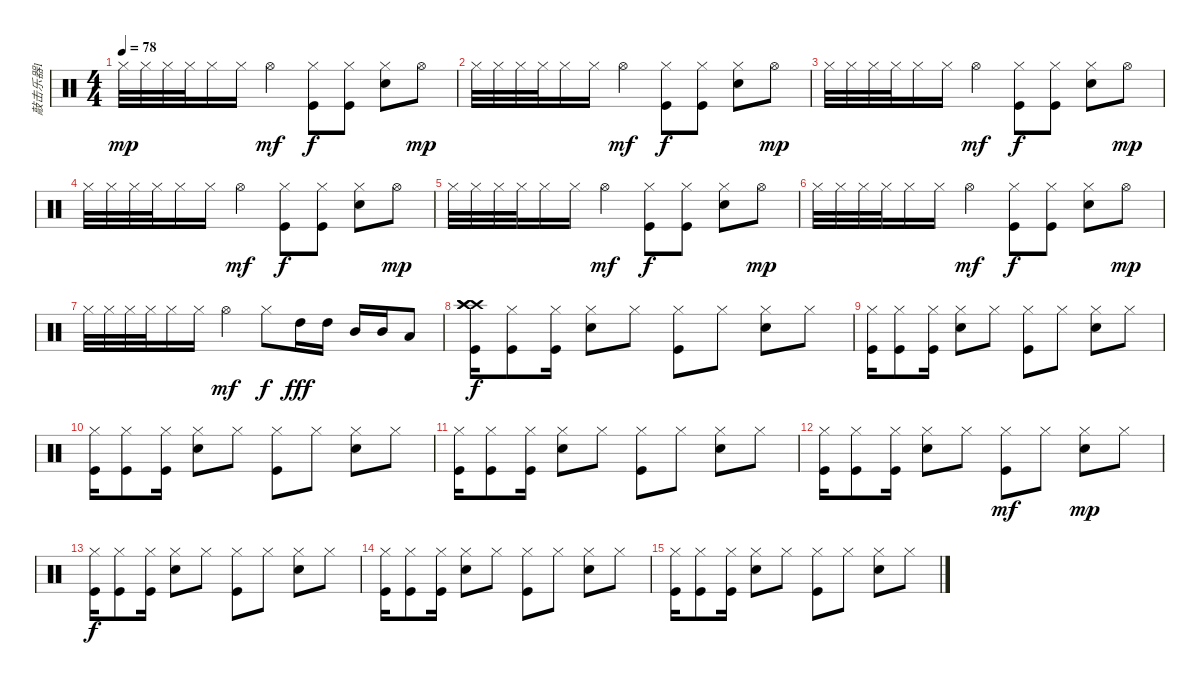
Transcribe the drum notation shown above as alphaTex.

\track ("敲击乐器1" "敲击乐器1") {instrument percussion}
\staff {score}
\articulation defaults
\ts (4 4)
\tempo 78
\clef neutral
\ks c "Hi-Hat (closed)".32{dy mp} "Hi-Hat (closed)".32 "Hi-Hat (closed)".32 "Hi-Hat (closed)".32 "Hi-Hat (closed)".16 "Hi-Hat (closed)".16 "Hi-Hat (open)".4{dy mf}
("Hi-Hat (closed)" "Kick (hit)").8{dy f} ("Hi-Hat (closed)" "Kick (hit)").8 ("Hi-Hat (closed)" "Snare (hit) 2").8 "Hi-Hat (open)".8{dy mp} |
"Hi-Hat (closed)".32 "Hi-Hat (closed)".32 "Hi-Hat (closed)".32 "Hi-Hat (closed)".32 "Hi-Hat (closed)".16 "Hi-Hat (closed)".16 "Hi-Hat (open)".4{dy mf} ("Hi-Hat (closed)" "Kick (hit)").8{dy f} ("Hi-Hat (closed)" "Kick (hit)").8 ("Hi-Hat (closed)" "Snare (hit) 2").8 "Hi-Hat (open)".8{dy mp} |
"Hi-Hat (closed)".32 "Hi-Hat (closed)".32 "Hi-Hat (closed)".32 "Hi-Hat (closed)".32 "Hi-Hat (closed)".16 "Hi-Hat (closed)".16 "Hi-Hat (open)".4{dy mf} ("Hi-Hat (closed)" "Kick (hit)").8{dy f} ("Hi-Hat (closed)" "Kick (hit)").8 ("Hi-Hat (closed)" "Snare (hit) 2").8 "Hi-Hat (open)".8{dy mp} |
"Hi-Hat (closed)".32 "Hi-Hat (closed)".32 "Hi-Hat (closed)".32 "Hi-Hat (closed)".32 "Hi-Hat (closed)".16 "Hi-Hat (closed)".16 "Hi-Hat (open)".4{dy mf} ("Hi-Hat (closed)" "Kick (hit)").8{dy f} ("Hi-Hat (closed)" "Kick (hit)").8 ("Hi-Hat (closed)" "Snare (hit) 2").8 "Hi-Hat (open)".8{dy mp} |
"Hi-Hat (closed)".32 "Hi-Hat (closed)".32 "Hi-Hat (closed)".32 "Hi-Hat (closed)".32 "Hi-Hat (closed)".16 "Hi-Hat (closed)".16 "Hi-Hat (open)".4{dy mf} ("Hi-Hat (closed)" "Kick (hit)").8{dy f} ("Hi-Hat (closed)" "Kick (hit)").8 ("Hi-Hat (closed)" "Snare (hit) 2").8 "Hi-Hat (open)".8{dy mp} |
"Hi-Hat (closed)".32 "Hi-Hat (closed)".32 "Hi-Hat (closed)".32 "Hi-Hat (closed)".32 "Hi-Hat (closed)".16 "Hi-Hat (closed)".16 "Hi-Hat (open)".4{dy mf} ("Hi-Hat (closed)" "Kick (hit)").8{dy f} ("Hi-Hat (closed)" "Kick (hit)").8 ("Hi-Hat (closed)" "Snare (hit) 2").8 "Hi-Hat (open)".8{dy mp} |
"Hi-Hat (closed)".32 "Hi-Hat (closed)".32 "Hi-Hat (closed)".32 "Hi-Hat (closed)".32 "Hi-Hat (closed)".16 "Hi-Hat (closed)".16 "Hi-Hat (open)".4{dy mf} "Hi-Hat (closed)".8{dy f} "High Tom (hit)".16{dy fff} "High Tom (hit)".16 "Mid Tom (hit)".16 "Mid Tom (hit)".16 "Low Tom (hit)".8 |
("Crash high (hit)" "Kick (hit)" "Crash high (hit)" "Crash high (hit)").16{dy f} ("Hi-Hat (closed)" "Kick (hit)").8 ("Hi-Hat (closed)" "Kick (hit)").16 ("Hi-Hat (closed)" "Snare (hit) 2").8 "Hi-Hat (closed)".8 ("Hi-Hat (closed)" "Kick (hit)").8 "Hi-Hat (closed)".8 ("Hi-Hat (closed)" "Snare (hit) 2").8 "Hi-Hat (closed)".8 |
("Hi-Hat (closed)" "Kick (hit)").16 ("Hi-Hat (closed)" "Kick (hit)").8 ("Hi-Hat (closed)" "Kick (hit)").16 ("Hi-Hat (closed)" "Snare (hit) 2").8 "Hi-Hat (closed)".8 ("Hi-Hat (closed)" "Kick (hit)").8 "Hi-Hat (closed)".8 ("Hi-Hat (closed)" "Snare (hit) 2").8 "Hi-Hat (closed)".8 |
("Hi-Hat (closed)" "Kick (hit)").16 ("Hi-Hat (closed)" "Kick (hit)").8 ("Hi-Hat (closed)" "Kick (hit)").16 ("Hi-Hat (closed)" "Snare (hit) 2").8 "Hi-Hat (closed)".8 ("Hi-Hat (closed)" "Kick (hit)").8 "Hi-Hat (closed)".8 ("Hi-Hat (closed)" "Snare (hit) 2").8 "Hi-Hat (closed)".8 |
("Hi-Hat (closed)" "Kick (hit)").16 ("Hi-Hat (closed)" "Kick (hit)").8 ("Hi-Hat (closed)" "Kick (hit)").16 ("Hi-Hat (closed)" "Snare (hit) 2").8 "Hi-Hat (closed)".8 ("Hi-Hat (closed)" "Kick (hit)").8 "Hi-Hat (closed)".8 ("Hi-Hat (closed)" "Snare (hit) 2").8 "Hi-Hat (closed)".8 |
("Hi-Hat (closed)" "Kick (hit)").16{volume 10} ("Hi-Hat (closed)" "Kick (hit)").8 ("Hi-Hat (closed)" "Kick (hit)").16 ("Hi-Hat (closed)" "Snare (hit) 2").8 "Hi-Hat (closed)".8 ("Hi-Hat (closed)" "Kick (hit)").8{dy mf} "Hi-Hat (closed)".8 ("Hi-Hat (closed)" "Snare (hit) 2").8{dy mp} "Hi-Hat (closed)".8 |
("Hi-Hat (closed)" "Kick (hit)").16{dy f volume 6} ("Hi-Hat (closed)" "Kick (hit)").8 ("Hi-Hat (closed)" "Kick (hit)").16 ("Hi-Hat (closed)" "Snare (hit) 2").8 "Hi-Hat (closed)".8 ("Hi-Hat (closed)" "Kick (hit)").8 "Hi-Hat (closed)".8 ("Hi-Hat (closed)" "Snare (hit) 2").8 "Hi-Hat (closed)".8 |
("Hi-Hat (closed)" "Kick (hit)").16 ("Hi-Hat (closed)" "Kick (hit)").8 ("Hi-Hat (closed)" "Kick (hit)").16 ("Hi-Hat (closed)" "Snare (hit) 2").8 "Hi-Hat (closed)".8 ("Hi-Hat (closed)" "Kick (hit)").8 "Hi-Hat (closed)".8 ("Hi-Hat (closed)" "Snare (hit) 2").8 "Hi-Hat (closed)".8 |
("Hi-Hat (closed)" "Kick (hit)").16{volume 3} ("Hi-Hat (closed)" "Kick (hit)").8 ("Hi-Hat (closed)" "Kick (hit)").16 ("Hi-Hat (closed)" "Snare (hit) 2").8 "Hi-Hat (closed)".8 ("Hi-Hat (closed)" "Kick (hit)").8 "Hi-Hat (closed)".8 ("Hi-Hat (closed)" "Snare (hit) 2").8 "Hi-Hat (closed)".8
